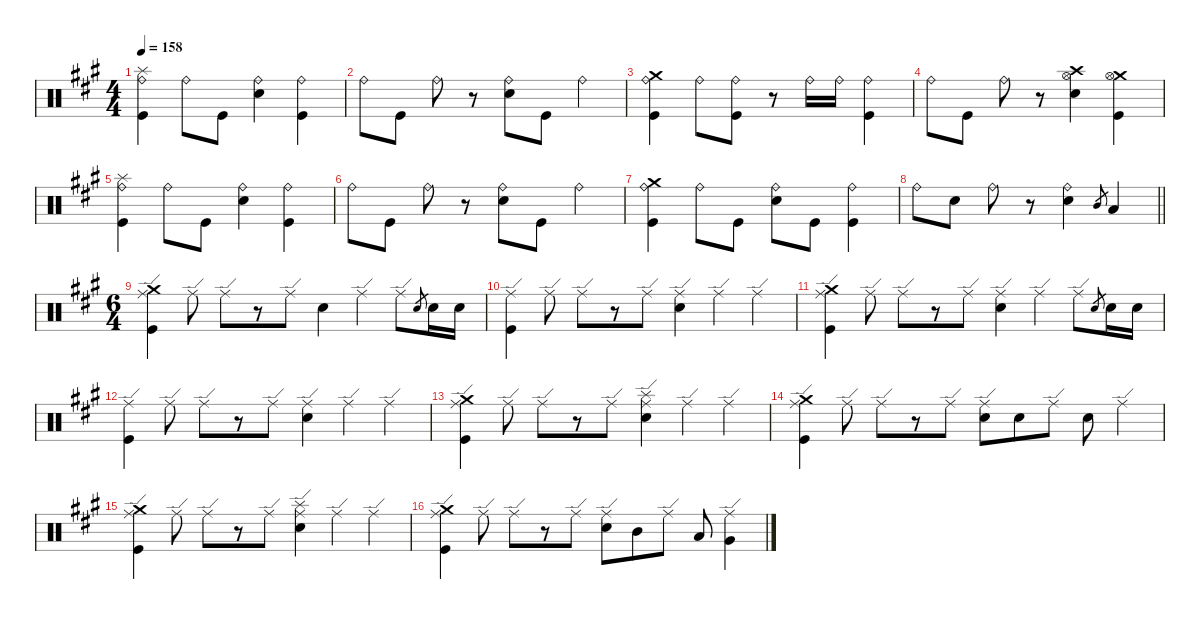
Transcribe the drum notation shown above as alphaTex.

\defaultSystemsLayout 4
\hideDynamics
\bracketExtendMode nobrackets
\singleTrackTrackNamePolicy hidden
\multiTrackTrackNamePolicy hidden
\firstSystemTrackNameMode fullname
\firstSystemTrackNameOrientation horizontal
\otherSystemsTrackNameOrientation horizontal
\track ("Drums" "drm.") {instrument percussion}
\staff {score}
\articulation defaults
\ts (4 4)
\tempo 158
\clef neutral
\ks f#minor
("Splash (hit)"{acc forcenatural} "Ride (bell)"{acc forcenatural} "Kick (hit)"{acc forcenatural}).4{dy f beam Down} "Ride (bell)"{acc forcenatural}.8{beam Down} "Kick (hit)"{acc forcenatural}.8{dy mp beam Down} ("Ride (bell)"{acc forcenatural} "Snare (hit) 2"{acc forcenatural}).4{dy f beam Down} ("Ride (bell)"{acc forcenatural} "Kick (hit)"{acc forcenatural}).4{beam Down} |
"Ride (bell)"{acc forcenatural}.8{beam Down} "Kick (hit)"{acc forcenatural}.8{beam Down} "Ride (bell)"{acc forcenatural}.8{beam Down} r.8{beam Down} ("Ride (bell)"{acc forcenatural} "Snare (hit) 2"{acc forcenatural}).8{beam Down} "Kick (hit)"{acc forcenatural}.8{beam Down} "Ride (bell)"{acc forcenatural}.4{beam Down} |
("Crash medium (hit)"{acc forcenatural} "Ride (bell)"{acc forcenatural} "Kick (hit)"{acc forcenatural}).4{beam Down} "Ride (bell)"{acc forcenatural}.8{beam Down} ("Ride (bell)"{acc forcenatural} "Kick (hit)"{acc forcenatural}).8{beam Down} r.8{beam Down} "Ride (bell)"{acc forcenatural}.16{dy mf beam Down} "Ride (bell)"{acc forcenatural}.16{beam Down} ("Ride (bell)"{acc forcenatural} "Kick (hit)"{acc forcenatural}).4{dy f beam Down} |
"Ride (bell)"{acc forcenatural}.8{beam Down} "Kick (hit)"{acc forcenatural}.8{beam Down} "Ride (bell)"{acc forcenatural}.8{beam Down} r.8{beam Down} ("Crash high (hit)"{acc forcenatural} "Hi-Hat (open)"{acc forcenatural} "Snare (hit) 2"{acc forcenatural}).4{dy mf beam Down} ("Crash medium (hit)"{acc forcenatural} "Hi-Hat (open)"{acc forcenatural} "Kick (hit)"{acc forcenatural}).4{dy f beam Down} |
("Splash (hit)"{acc forcenatural} "Ride (bell)"{acc forcenatural} "Kick (hit)"{acc forcenatural}).4{beam Down} "Ride (bell)"{acc forcenatural}.8{beam Down} "Kick (hit)"{acc forcenatural}.8{dy mp beam Down} ("Ride (bell)"{acc forcenatural} "Snare (hit) 2"{acc forcenatural}).4{dy f beam Down} ("Ride (bell)"{acc forcenatural} "Kick (hit)"{acc forcenatural}).4{beam Down} |
"Ride (bell)"{acc forcenatural}.8{beam Down} "Kick (hit)"{acc forcenatural}.8{beam Down} "Ride (bell)"{acc forcenatural}.8{beam Down} r.8{beam Down} ("Ride (bell)"{acc forcenatural} "Snare (hit) 2"{acc forcenatural}).8{beam Down} "Kick (hit)"{acc forcenatural}.8{beam Down} "Ride (bell)"{acc forcenatural}.4{beam Down} |
("Crash medium (hit)"{acc forcenatural} "Ride (bell)"{acc forcenatural} "Kick (hit)"{acc forcenatural}).4{beam Down} "Ride (bell)"{acc forcenatural}.8{beam Down} "Kick (hit)"{acc forcenatural}.8{dy mp beam Down} ("Ride (bell)"{acc forcenatural} "Snare (hit) 2"{acc forcenatural}).8{dy f beam Down} "Kick (hit)"{acc forcenatural}.8{dy mf beam Down} ("Ride (bell)"{acc forcenatural} "Kick (hit)"{acc forcenatural}).4{dy f beam Down} |
\barLineRight lightlight "Ride (bell)"{acc forcenatural}.8{beam Down} "Snare (hit) 2"{acc forcenatural}.8{beam Down} "Ride (bell)"{acc forcenatural}.8{beam Down}
r.8{beam Down} ("Ride (bell)"{acc forcenatural} "Snare (hit) 2"{acc forcenatural}).4{beam Down} "Mid Tom (hit)"{acc forcenatural}.8{gr dy p beam Up} "Low Tom (hit)"{acc forcenatural}.4{dy f beam Up} |
\ts (6 4)
\beaming (8 3 3 3 3)
("Crash medium (hit)"{acc forcenatural} "Kick (hit)"{acc forcenatural} "Ride (edge)"{acc forcenatural}).4{beam Down} "Ride (edge)"{acc forcenatural}.8{dy p beam Down} "Ride (edge)"{acc forcenatural}.8{beam Down} r.8{beam Down} "Ride (edge)"{acc forcenatural}.8{beam Down} "Snare (hit) 2"{acc forcenatural}.4{dy f beam Down} "Ride (edge)"{acc forcenatural}.4{dy mp beam Down} "Ride (edge)"{acc forcenatural}.8{beam Down} "Electric Snare (hit)"{acc forcenatural}.8{gr dy ppp beam Up} "Snare (hit) 2"{acc forcenatural}.16{dy p beam Down} "Snare (hit) 2"{acc forcenatural}.16{beam Down} |
("Ride (edge)"{acc forcenatural} "Kick (hit)"{acc forcenatural}).4{dy f beam Down} "Ride (edge)"{acc forcenatural}.8{dy mf beam Down} "Ride (edge)"{acc forcenatural}.8{dy mp beam Down} r.8{beam Down} "Ride (edge)"{acc forcenatural}.8{dy p beam Down} ("Ride (edge)"{acc forcenatural} "Snare (hit) 2"{acc forcenatural}).4{dy f beam Down} "Ride (edge)"{acc forcenatural}.4{dy mf beam Down} "Ride (edge)"{acc forcenatural}.4{dy mp beam Down} |
("Crash medium (hit)"{acc forcenatural} "Ride (edge)"{acc forcenatural} "Kick (hit)"{acc forcenatural}).4{dy f beam Down} "Ride (edge)"{acc forcenatural}.8{dy p beam Down} "Ride (edge)"{acc forcenatural}.8{beam Down} r.8{beam Down} "Ride (edge)"{acc forcenatural}.8{beam Down} ("Ride (edge)"{acc forcenatural} "Snare (hit) 2"{acc forcenatural}).4{dy f beam Down} "Ride (edge)"{acc forcenatural}.4{dy mf beam Down} "Ride (edge)"{acc forcenatural}.8{dy p beam Down} "Electric Snare (hit)"{acc forcenatural}.8{gr dy ppp beam Up} "Snare (hit) 2"{acc forcenatural}.16{dy p beam Down} "Snare (hit) 2"{acc forcenatural}.16{beam Down} |
("Ride (edge)"{acc forcenatural} "Kick (hit)"{acc forcenatural}).4{dy f beam Down} "Ride (edge)"{acc forcenatural}.8{dy mf beam Down} "Ride (edge)"{acc forcenatural}.8{dy mp beam Down} r.8{beam Down} "Ride (edge)"{acc forcenatural}.8{dy p beam Down} ("Ride (edge)"{acc forcenatural} "Snare (hit) 2"{acc forcenatural}).4{dy f beam Down} "Ride (edge)"{acc forcenatural}.4{dy mp beam Down} "Ride (edge)"{acc forcenatural}.4{dy p beam Down} |
("Crash medium (hit)"{acc forcenatural} "Ride (edge)"{acc forcenatural} "Kick (hit)"{acc forcenatural}).4{dy f beam Down} "Ride (edge)"{acc forcenatural}.8{dy p beam Down} "Ride (edge)"{acc forcenatural}.8{beam Down} r.8{beam Down} "Ride (edge)"{acc forcenatural}.8{beam Down} ("Splash (hit)"{acc forcenatural} "Ride (edge)"{acc forcenatural} "Snare (hit) 2"{acc forcenatural}).4{dy mf beam Down} "Ride (edge)"{acc forcenatural}.4{beam Down} "Ride (edge)"{acc forcenatural}.4{dy mp beam Down} |
("Crash medium (hit)"{acc forcenatural} "Ride (edge)"{acc forcenatural} "Kick (hit)"{acc forcenatural}).4{dy f beam Down} "Ride (edge)"{acc forcenatural}.8{dy p beam Down} "Ride (edge)"{acc forcenatural}.8{beam Down} r.8{beam Down} "Ride (edge)"{acc forcenatural}.8{beam Down} ("Ride (edge)"{acc forcenatural} "Snare (hit) 2"{acc forcenatural}).8{dy f beam Down} "Snare (hit) 2"{acc forcenatural}.8{dy mf beam Down} "Ride (edge)"{acc forcenatural}.8{beam Down} "Snare (hit) 2"{acc forcenatural}.8{dy f beam Down} "Ride (edge)"{acc forcenatural}.4{dy mf beam Down} |
("Crash medium (hit)"{acc forcenatural} "Ride (edge)"{acc forcenatural} "Kick (hit)"{acc forcenatural}).4{dy f beam Down} "Ride (edge)"{acc forcenatural}.8{dy p beam Down} "Ride (edge)"{acc forcenatural}.8{beam Down} r.8{beam Down} "Ride (edge)"{acc forcenatural}.8{beam Down} ("Splash (hit)"{acc forcenatural} "Ride (edge)"{acc forcenatural} "Snare (hit) 2"{acc forcenatural}).4{dy mf beam Down} "Ride (edge)"{acc forcenatural}.4{beam Down} "Ride (edge)"{acc forcenatural}.4{dy p beam Down} |
("Crash medium (hit)"{acc forcenatural} "Ride (edge)"{acc forcenatural} "Kick (hit)"{acc forcenatural}).4{dy f beam Down} "Ride (edge)"{acc forcenatural}.8{dy p beam Down} "Ride (edge)"{acc forcenatural}.8{beam Down} r.8{beam Down} "Ride (edge)"{acc forcenatural}.8{beam Down} ("Ride (edge)"{acc forcenatural} "Snare (hit) 2"{acc forcenatural}).8{dy f beam Down} "Mid Tom (hit)"{acc forcenatural}.8{dy mf beam Down} "Ride (edge)"{acc forcenatural}.8{dy p beam Down} "Low Tom (hit)"{acc forcenatural}.8{dy f beam Up} ("Ride (edge)"{acc forcenatural} "Very Low Tom (hit)"{acc forcenatural}).4{beam Down}
